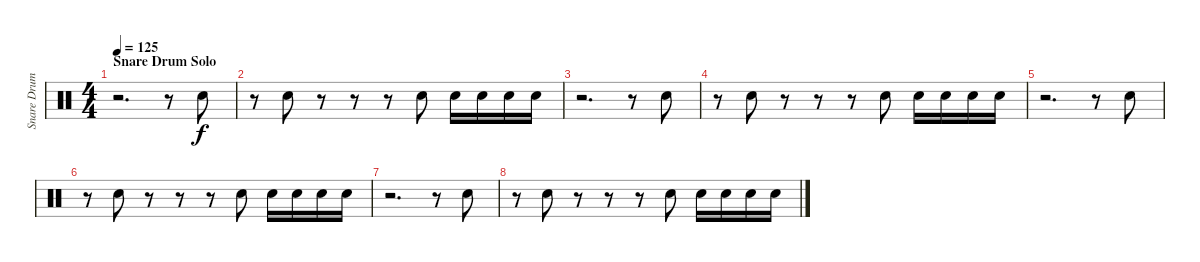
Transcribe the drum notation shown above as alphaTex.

\track ("Snare Drum (Stephen Morris)" "Snare Drum") {instrument percussion}
\staff {score}
\articulation defaults
\ts (4 4)
\section ("" "Snare Drum Solo")
\tempo 125
\clef neutral
\ks c
r.2{d dy f} r.8 "Electric Snare (hit)".8 |
r.8 "Electric Snare (hit)".8 r.8 r.8 r.8 "Electric Snare (hit)".8 "Electric Snare (hit)".16 "Electric Snare (hit)".16 "Electric Snare (hit)".16 "Electric Snare (hit)".16 |
r.2{d} r.8 "Electric Snare (hit)".8 |
r.8 "Electric Snare (hit)".8 r.8 r.8 r.8 "Electric Snare (hit)".8 "Electric Snare (hit)".16 "Electric Snare (hit)".16 "Electric Snare (hit)".16 "Electric Snare (hit)".16 |
r.2{d} r.8 "Electric Snare (hit)".8 |
r.8 "Electric Snare (hit)".8 r.8 r.8 r.8 "Electric Snare (hit)".8 "Electric Snare (hit)".16 "Electric Snare (hit)".16 "Electric Snare (hit)".16 "Electric Snare (hit)".16 |
r.2{d} r.8 "Electric Snare (hit)".8 |
r.8 "Electric Snare (hit)".8 r.8 r.8 r.8 "Electric Snare (hit)".8 "Electric Snare (hit)".16 "Electric Snare (hit)".16 "Electric Snare (hit)".16 "Electric Snare (hit)".16
